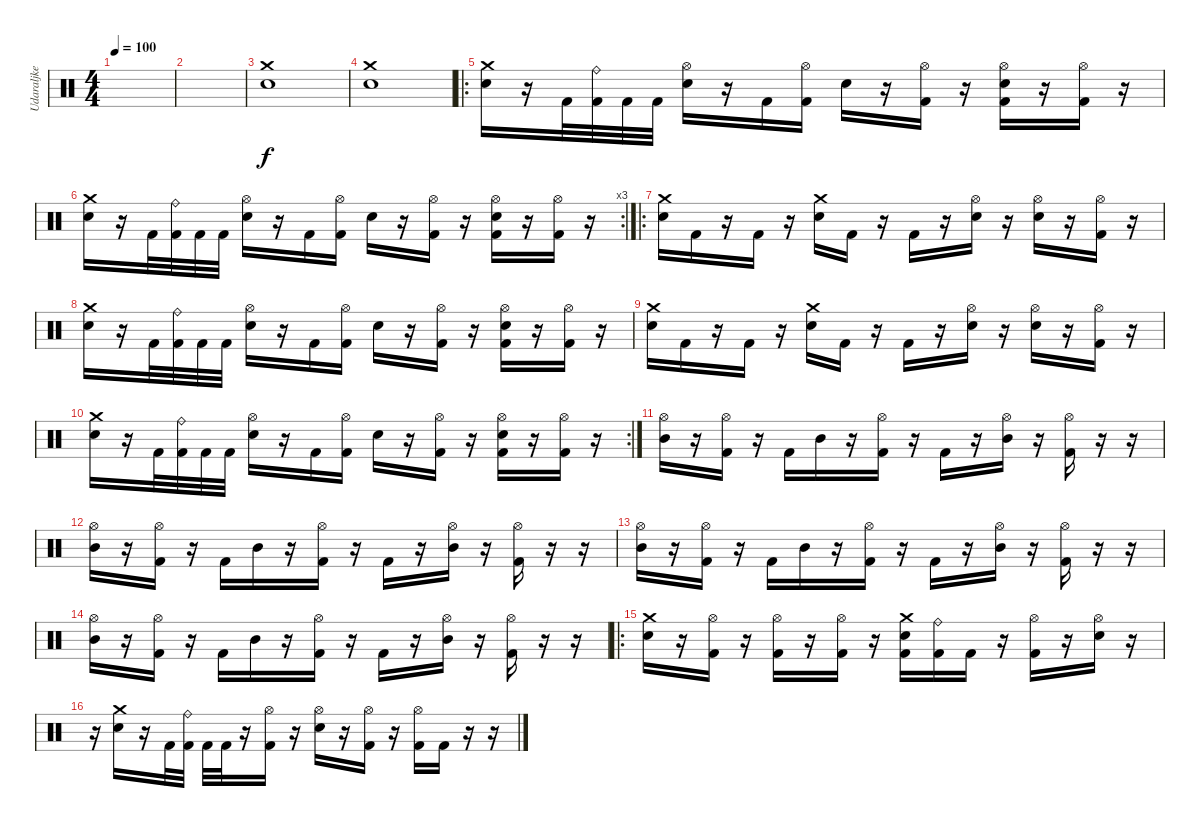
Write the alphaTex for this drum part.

\track ("Udaraljke" "Udaraljke") {instrument percussion}
\staff {score}
\articulation defaults
\ts (4 4)
\tempo 100
\clef neutral
\ks c
|
|
("Crash medium (hit)" "Snare (hit) 2").1 |
("Crash medium (hit)" "Snare (hit) 2").1 |
\ro
("Crash medium (hit)" "Snare (hit) 2").16 r.16 "Kick (hit) 2".32 ("Ride (bell)" "Kick (hit) 2").32 "Kick (hit) 2".32 "Kick (hit) 2".32 ("Hi-Hat (open)" "Snare (hit) 2").16 r.16 "Kick (hit) 2".16 ("Hi-Hat (open)" "Kick (hit) 2").16 "Snare (hit) 2".16 r.16 ("Hi-Hat (open)" "Kick (hit) 2").16 r.16 ("Snare (hit) 2" "Hi-Hat (open)" "Kick (hit) 2").16 r.16 ("Hi-Hat (open)" "Kick (hit) 2").16 r.16 |
\rc 3
("Crash medium (hit)" "Snare (hit) 2").16 r.16 "Kick (hit) 2".32 ("Ride (bell)" "Kick (hit) 2").32 "Kick (hit) 2".32 "Kick (hit) 2".32 ("Hi-Hat (open)" "Snare (hit) 2").16 r.16 "Kick (hit) 2".16 ("Hi-Hat (open)" "Kick (hit) 2").16 "Snare (hit) 2".16 r.16 ("Hi-Hat (open)" "Kick (hit) 2").16 r.16 ("Snare (hit) 2" "Hi-Hat (open)" "Kick (hit) 2").16 r.16 ("Hi-Hat (open)" "Kick (hit) 2").16 r.16 |
\ro
("Crash medium (hit)" "Snare (hit) 2").16 "Kick (hit) 2".16 r.16 "Kick (hit) 2".16 r.16 ("Crash medium (hit)" "Snare (hit) 2").16 "Kick (hit) 2".16 r.16 "Kick (hit) 2".16 r.16 ("Snare (hit) 2" "Hi-Hat (open)").16 r.16 ("Hi-Hat (open)" "Snare (hit) 2").16 r.16 ("Hi-Hat (open)" "Kick (hit) 2").16 r.16 |
("Crash medium (hit)" "Snare (hit) 2").16 r.16 "Kick (hit) 2".32 ("Ride (bell)" "Kick (hit) 2").32 "Kick (hit) 2".32 "Kick (hit) 2".32 ("Hi-Hat (open)" "Snare (hit) 2").16 r.16 "Kick (hit) 2".16 ("Hi-Hat (open)" "Kick (hit) 2").16 "Snare (hit) 2".16 r.16 ("Hi-Hat (open)" "Kick (hit) 2").16 r.16 ("Snare (hit) 2" "Hi-Hat (open)" "Kick (hit) 2").16 r.16 ("Hi-Hat (open)" "Kick (hit) 2").16 r.16 |
("Crash medium (hit)" "Snare (hit) 2").16 "Kick (hit) 2".16 r.16 "Kick (hit) 2".16 r.16 ("Crash medium (hit)" "Snare (hit) 2").16 "Kick (hit) 2".16 r.16 "Kick (hit) 2".16 r.16 ("Snare (hit) 2" "Hi-Hat (open)").16 r.16 ("Hi-Hat (open)" "Snare (hit) 2").16 r.16 ("Hi-Hat (open)" "Kick (hit) 2").16 r.16 |
\rc 2
("Crash medium (hit)" "Snare (hit) 2").16 r.16 "Kick (hit) 2".32 ("Ride (bell)" "Kick (hit) 2").32 "Kick (hit) 2".32 "Kick (hit) 2".32 ("Hi-Hat (open)" "Snare (hit) 2").16 r.16 "Kick (hit) 2".16 ("Hi-Hat (open)" "Kick (hit) 2").16 "Snare (hit) 2".16 r.16 ("Hi-Hat (open)" "Kick (hit) 2").16 r.16 ("Snare (hit) 2" "Hi-Hat (open)" "Kick (hit) 2").16 r.16 ("Hi-Hat (open)" "Kick (hit) 2").16 r.16 |
("Hi-Hat (open)" "Mid Tom (hit)").16 r.16 ("Hi-Hat (open)" "Kick (hit) 2").16 r.16 "Kick (hit) 2".16 "Mid Tom (hit)".16 r.16 ("Hi-Hat (open)" "Kick (hit) 2").16 r.16 "Kick (hit) 2".16 r.16 ("Hi-Hat (open)" "Mid Tom (hit)").16 r.16 ("Hi-Hat (open)" "Kick (hit) 2").16 r.16 r.16 |
("Hi-Hat (open)" "Mid Tom (hit)").16 r.16 ("Hi-Hat (open)" "Kick (hit) 2").16 r.16 "Kick (hit) 2".16 "Mid Tom (hit)".16 r.16 ("Hi-Hat (open)" "Kick (hit) 2").16 r.16 "Kick (hit) 2".16 r.16 ("Hi-Hat (open)" "Mid Tom (hit)").16 r.16 ("Hi-Hat (open)" "Kick (hit) 2").16 r.16 r.16 |
("Hi-Hat (open)" "Mid Tom (hit)").16 r.16 ("Hi-Hat (open)" "Kick (hit) 2").16 r.16 "Kick (hit) 2".16 "Mid Tom (hit)".16 r.16 ("Hi-Hat (open)" "Kick (hit) 2").16 r.16 "Kick (hit) 2".16 r.16 ("Hi-Hat (open)" "Mid Tom (hit)").16 r.16 ("Hi-Hat (open)" "Kick (hit) 2").16 r.16 r.16 |
("Hi-Hat (open)" "Mid Tom (hit)").16 r.16 ("Hi-Hat (open)" "Kick (hit) 2").16 r.16 "Kick (hit) 2".16 "Mid Tom (hit)".16 r.16 ("Hi-Hat (open)" "Kick (hit) 2").16 r.16 "Kick (hit) 2".16 r.16 ("Hi-Hat (open)" "Mid Tom (hit)").16 r.16 ("Hi-Hat (open)" "Kick (hit) 2").16 r.16 r.16 |
\ro
("Snare (hit) 2" "Crash medium (hit)").16 r.16 ("Hi-Hat (open)" "Kick (hit) 2").16 r.16 ("Hi-Hat (open)" "Kick (hit) 2").16 r.16 ("Hi-Hat (open)" "Kick (hit) 2").16 r.16 ("Crash medium (hit)" "Snare (hit) 2" "Kick (hit) 2").16 ("Ride (bell)" "Kick (hit) 2").16 "Kick (hit) 2".16 r.16 ("Hi-Hat (open)" "Kick (hit) 2").16 r.16 ("Hi-Hat (open)" "Snare (hit) 2").16 r.16 |
r.16 ("Crash medium (hit)" "Snare (hit) 2").16 r.16 "Kick (hit) 2".32 ("Ride (bell)" "Kick (hit) 2").32 "Kick (hit) 2".32 "Kick (hit) 2".32 r.16 ("Hi-Hat (open)" "Kick (hit) 2").16 r.16 ("Hi-Hat (open)" "Snare (hit) 2").16 r.16 ("Hi-Hat (open)" "Kick (hit) 2").16 r.16 ("Hi-Hat (open)" "Kick (hit) 2").16 "Kick (hit) 2".16 r.16 r.16
